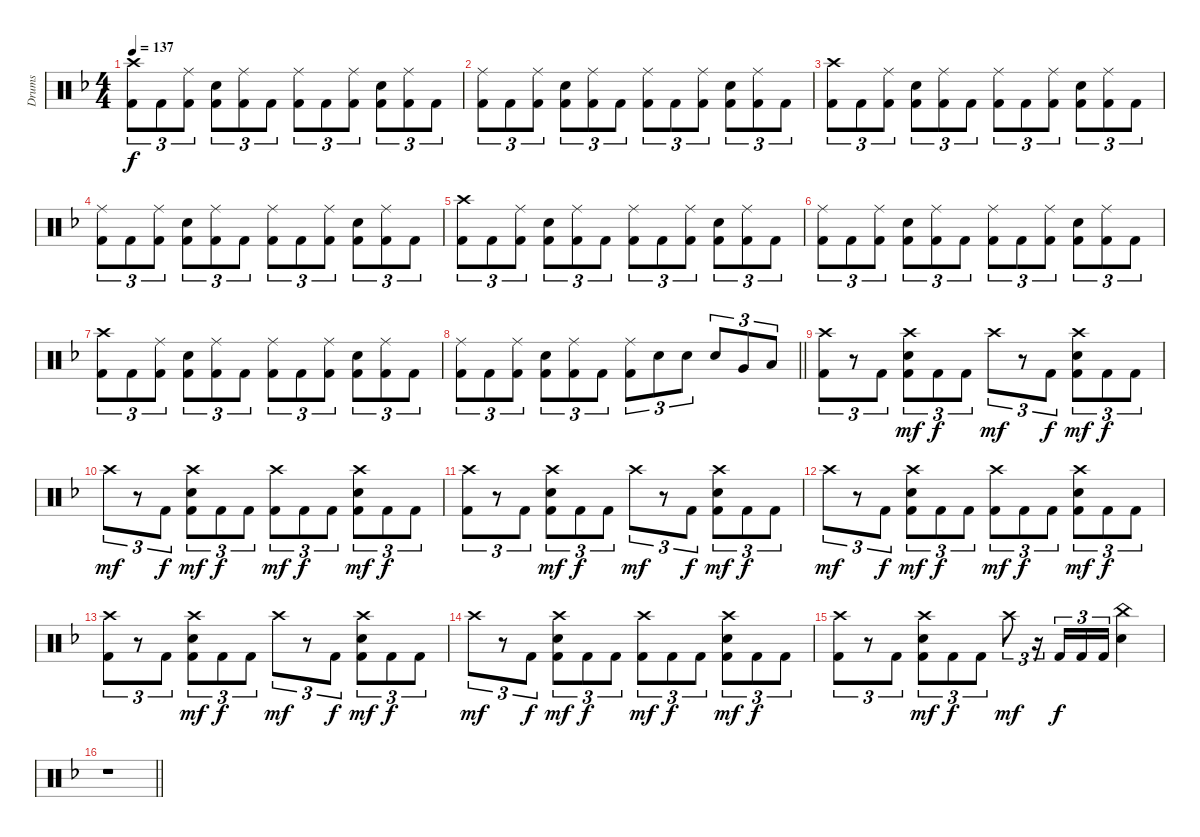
\track ("Drums" "Drums") {instrument percussion}
\staff {score}
\articulation defaults
\ts (4 4)
\tempo 137
\clef neutral
\ks dminor
("Crash high (hit)" "Kick (hit) 2").8{tu (3 2) dy f} "Kick (hit) 2".8{tu (3 2)} ("Ride (middle)" "Kick (hit) 2").8{tu (3 2)} ("Snare (hit) 2" "Kick (hit) 2").8{tu (3 2)} ("Ride (middle)" "Kick (hit) 2").8{tu (3 2)} "Kick (hit) 2".8{tu (3 2)} ("Ride (middle)" "Kick (hit) 2").8{tu (3 2)} "Kick (hit) 2".8{tu (3 2)} ("Ride (middle)" "Kick (hit) 2").8{tu (3 2)} ("Snare (hit) 2" "Kick (hit) 2").8{tu (3 2)} ("Ride (middle)" "Kick (hit) 2").8{tu (3 2)} "Kick (hit) 2".8{tu (3 2)} |
("Ride (middle)" "Kick (hit) 2").8{tu (3 2)} "Kick (hit) 2".8{tu (3 2)} ("Ride (middle)" "Kick (hit) 2").8{tu (3 2)} ("Snare (hit) 2" "Kick (hit) 2").8{tu (3 2)} ("Ride (middle)" "Kick (hit) 2").8{tu (3 2)} "Kick (hit) 2".8{tu (3 2)} ("Ride (middle)" "Kick (hit) 2").8{tu (3 2)} "Kick (hit) 2".8{tu (3 2)} ("Ride (middle)" "Kick (hit) 2").8{tu (3 2)} ("Snare (hit) 2" "Kick (hit) 2").8{tu (3 2)} ("Ride (middle)" "Kick (hit) 2").8{tu (3 2)} "Kick (hit) 2".8{tu (3 2)} |
("Crash high (hit)" "Kick (hit) 2").8{tu (3 2)} "Kick (hit) 2".8{tu (3 2)} ("Ride (middle)" "Kick (hit) 2").8{tu (3 2)} ("Snare (hit) 2" "Kick (hit) 2").8{tu (3 2)} ("Ride (middle)" "Kick (hit) 2").8{tu (3 2)} "Kick (hit) 2".8{tu (3 2)} ("Ride (middle)" "Kick (hit) 2").8{tu (3 2)} "Kick (hit) 2".8{tu (3 2)} ("Ride (middle)" "Kick (hit) 2").8{tu (3 2)} ("Snare (hit) 2" "Kick (hit) 2").8{tu (3 2)} ("Ride (middle)" "Kick (hit) 2").8{tu (3 2)} "Kick (hit) 2".8{tu (3 2)} |
("Ride (middle)" "Kick (hit) 2").8{tu (3 2)} "Kick (hit) 2".8{tu (3 2)} ("Ride (middle)" "Kick (hit) 2").8{tu (3 2)} ("Snare (hit) 2" "Kick (hit) 2").8{tu (3 2)} ("Ride (middle)" "Kick (hit) 2").8{tu (3 2)} "Kick (hit) 2".8{tu (3 2)} ("Ride (middle)" "Kick (hit) 2").8{tu (3 2)} "Kick (hit) 2".8{tu (3 2)} ("Ride (middle)" "Kick (hit) 2").8{tu (3 2)} ("Snare (hit) 2" "Kick (hit) 2").8{tu (3 2)} ("Ride (middle)" "Kick (hit) 2").8{tu (3 2)} "Kick (hit) 2".8{tu (3 2)} |
("Crash high (hit)" "Kick (hit) 2").8{tu (3 2)} "Kick (hit) 2".8{tu (3 2)} ("Ride (middle)" "Kick (hit) 2").8{tu (3 2)} ("Snare (hit) 2" "Kick (hit) 2").8{tu (3 2)} ("Ride (middle)" "Kick (hit) 2").8{tu (3 2)} "Kick (hit) 2".8{tu (3 2)} ("Ride (middle)" "Kick (hit) 2").8{tu (3 2)} "Kick (hit) 2".8{tu (3 2)} ("Ride (middle)" "Kick (hit) 2").8{tu (3 2)} ("Snare (hit) 2" "Kick (hit) 2").8{tu (3 2)} ("Ride (middle)" "Kick (hit) 2").8{tu (3 2)} "Kick (hit) 2".8{tu (3 2)} |
("Ride (middle)" "Kick (hit) 2").8{tu (3 2)} "Kick (hit) 2".8{tu (3 2)} ("Ride (middle)" "Kick (hit) 2").8{tu (3 2)} ("Snare (hit) 2" "Kick (hit) 2").8{tu (3 2)} ("Ride (middle)" "Kick (hit) 2").8{tu (3 2)} "Kick (hit) 2".8{tu (3 2)} ("Ride (middle)" "Kick (hit) 2").8{tu (3 2)} "Kick (hit) 2".8{tu (3 2)} ("Ride (middle)" "Kick (hit) 2").8{tu (3 2)} ("Snare (hit) 2" "Kick (hit) 2").8{tu (3 2)} ("Ride (middle)" "Kick (hit) 2").8{tu (3 2)} "Kick (hit) 2".8{tu (3 2)} |
("Crash high (hit)" "Kick (hit) 2").8{tu (3 2)} "Kick (hit) 2".8{tu (3 2)} ("Ride (middle)" "Kick (hit) 2").8{tu (3 2)} ("Snare (hit) 2" "Kick (hit) 2").8{tu (3 2)} ("Ride (middle)" "Kick (hit) 2").8{tu (3 2)} "Kick (hit) 2".8{tu (3 2)} ("Ride (middle)" "Kick (hit) 2").8{tu (3 2)} "Kick (hit) 2".8{tu (3 2)} ("Ride (middle)" "Kick (hit) 2").8{tu (3 2)} ("Snare (hit) 2" "Kick (hit) 2").8{tu (3 2)} ("Ride (middle)" "Kick (hit) 2").8{tu (3 2)} "Kick (hit) 2".8{tu (3 2)} |
\barLineRight lightlight
("Ride (middle)" "Kick (hit) 2").8{tu (3 2)} "Kick (hit) 2".8{tu (3 2)} ("Ride (middle)" "Kick (hit) 2").8{tu (3 2)} ("Snare (hit) 2" "Kick (hit) 2").8{tu (3 2)} ("Ride (middle)" "Kick (hit) 2").8{tu (3 2)} "Kick (hit) 2".8{tu (3 2)} ("Ride (middle)" "Kick (hit) 2").8{tu (3 2)} "Snare (hit) 2".8{tu (3 2)} "Snare (hit) 2".8{tu (3 2)} "Snare (hit) 2".8{tu (3 2)} "Very Low Tom (hit)".8{tu (3 2)} "Low Floor Tom (hit)".8{tu (3 2)} |
("Crash high (hit)" "Kick (hit) 2").8{tu (3 2)} r.8{tu (3 2)} "Kick (hit) 2".8{tu (3 2)} ("Crash high (hit)" "Snare (hit) 2" "Kick (hit) 2").8{tu (3 2) dy mf} "Kick (hit) 2".8{tu (3 2) dy f} "Kick (hit) 2".8{tu (3 2)} "Crash high (hit)".8{tu (3 2) dy mf} r.8{tu (3 2)} "Kick (hit) 2".8{tu (3 2) dy f} ("Crash high (hit)" "Snare (hit) 2" "Kick (hit) 2").8{tu (3 2) dy mf} "Kick (hit) 2".8{tu (3 2) dy f} "Kick (hit) 2".8{tu (3 2)} |
"Crash high (hit)".8{tu (3 2) dy mf} r.8{tu (3 2)} "Kick (hit) 2".8{tu (3 2) dy f} ("Crash high (hit)" "Snare (hit) 2" "Kick (hit) 2").8{tu (3 2) dy mf} "Kick (hit) 2".8{tu (3 2) dy f} "Kick (hit) 2".8{tu (3 2)} ("Crash high (hit)" "Kick (hit) 2").8{tu (3 2) dy mf} "Kick (hit) 2".8{tu (3 2) dy f} "Kick (hit) 2".8{tu (3 2)} ("Crash high (hit)" "Snare (hit) 2" "Kick (hit) 2").8{tu (3 2) dy mf} "Kick (hit) 2".8{tu (3 2) dy f} "Kick (hit) 2".8{tu (3 2)} |
("Crash high (hit)" "Kick (hit) 2").8{tu (3 2)} r.8{tu (3 2)} "Kick (hit) 2".8{tu (3 2)} ("Crash high (hit)" "Snare (hit) 2" "Kick (hit) 2").8{tu (3 2) dy mf} "Kick (hit) 2".8{tu (3 2) dy f} "Kick (hit) 2".8{tu (3 2)} "Crash high (hit)".8{tu (3 2) dy mf} r.8{tu (3 2)} "Kick (hit) 2".8{tu (3 2) dy f} ("Crash high (hit)" "Snare (hit) 2" "Kick (hit) 2").8{tu (3 2) dy mf} "Kick (hit) 2".8{tu (3 2) dy f} "Kick (hit) 2".8{tu (3 2)} |
"Crash high (hit)".8{tu (3 2) dy mf} r.8{tu (3 2)} "Kick (hit) 2".8{tu (3 2) dy f} ("Crash high (hit)" "Snare (hit) 2" "Kick (hit) 2").8{tu (3 2) dy mf} "Kick (hit) 2".8{tu (3 2) dy f} "Kick (hit) 2".8{tu (3 2)} ("Crash high (hit)" "Kick (hit) 2").8{tu (3 2) dy mf} "Kick (hit) 2".8{tu (3 2) dy f} "Kick (hit) 2".8{tu (3 2)} ("Crash high (hit)" "Snare (hit) 2" "Kick (hit) 2").8{tu (3 2) dy mf} "Kick (hit) 2".8{tu (3 2) dy f} "Kick (hit) 2".8{tu (3 2)} |
("Crash high (hit)" "Kick (hit) 2").8{tu (3 2)} r.8{tu (3 2)} "Kick (hit) 2".8{tu (3 2)} ("Crash high (hit)" "Snare (hit) 2" "Kick (hit) 2").8{tu (3 2) dy mf} "Kick (hit) 2".8{tu (3 2) dy f} "Kick (hit) 2".8{tu (3 2)} "Crash high (hit)".8{tu (3 2) dy mf} r.8{tu (3 2)} "Kick (hit) 2".8{tu (3 2) dy f} ("Crash high (hit)" "Snare (hit) 2" "Kick (hit) 2").8{tu (3 2) dy mf} "Kick (hit) 2".8{tu (3 2) dy f} "Kick (hit) 2".8{tu (3 2)} |
"Crash high (hit)".8{tu (3 2) dy mf} r.8{tu (3 2)} "Kick (hit) 2".8{tu (3 2) dy f} ("Crash high (hit)" "Snare (hit) 2" "Kick (hit) 2").8{tu (3 2) dy mf} "Kick (hit) 2".8{tu (3 2) dy f} "Kick (hit) 2".8{tu (3 2)} ("Crash high (hit)" "Kick (hit) 2").8{tu (3 2) dy mf} "Kick (hit) 2".8{tu (3 2) dy f} "Kick (hit) 2".8{tu (3 2)} ("Crash high (hit)" "Snare (hit) 2" "Kick (hit) 2").8{tu (3 2) dy mf} "Kick (hit) 2".8{tu (3 2) dy f} "Kick (hit) 2".8{tu (3 2)} |
("Crash high (hit)" "Kick (hit) 2").8{tu (3 2)} r.8{tu (3 2)} "Kick (hit) 2".8{tu (3 2)} ("Crash high (hit)" "Snare (hit) 2" "Kick (hit) 2").8{tu (3 2) dy mf} "Kick (hit) 2".8{tu (3 2) dy f} "Kick (hit) 2".8{tu (3 2)} "Crash high (hit)".8{tu (3 2) dy mf} r.16{tu (3 2)} "Kick (hit) 2".16{tu (3 2) dy f} "Kick (hit) 2".16{tu (3 2)} "Kick (hit) 2".16{tu (3 2)} ("China (hit)" "Snare (hit) 2").4 |
\barLineRight lightlight
r.1
